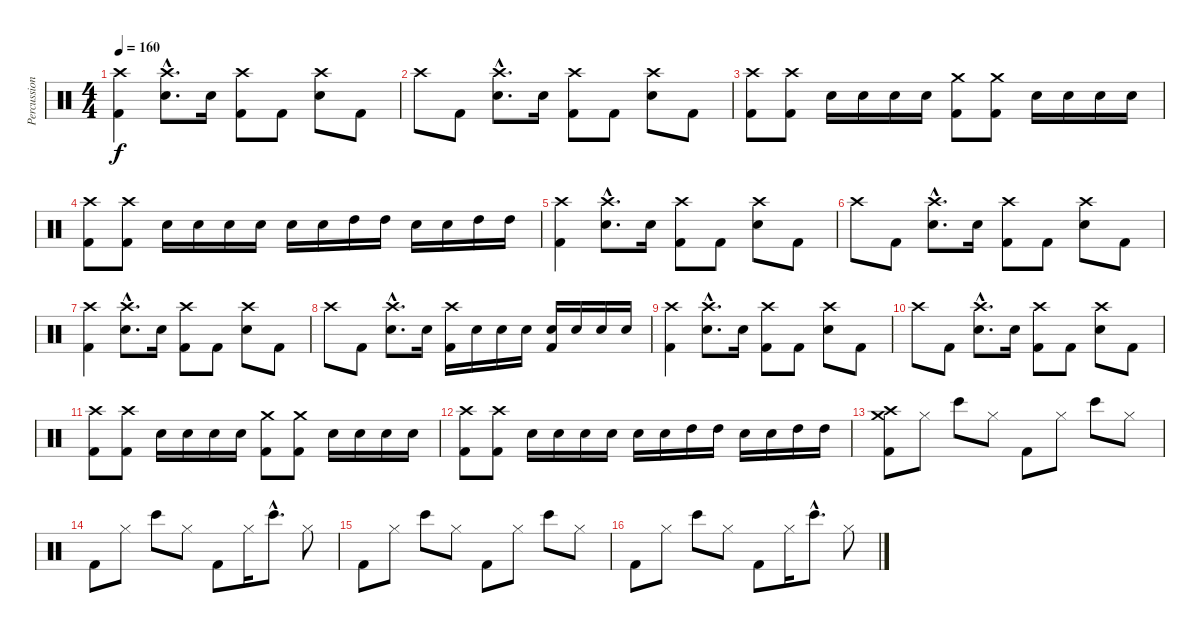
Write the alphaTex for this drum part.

\track ("Percussion" "Percussion") {instrument percussion}
\staff {score}
\articulation defaults
\ts (4 4)
\tempo 160
\clef neutral
\ks c
("Crash high (hit)" "Kick (hit) 2").4{dy f} ("Crash high (hit)"{hac} "Electric Snare (hit)"{hac}).8{d} "Electric Snare (hit)".16 ("Crash high (hit)" "Kick (hit) 2").8 "Kick (hit) 2".8 ("Crash high (hit)" "Electric Snare (hit)").8 "Kick (hit) 2".8 |
"Crash high (hit)".8 "Kick (hit) 2".8 ("Crash high (hit)"{hac} "Electric Snare (hit)"{hac}).8{d} "Electric Snare (hit)".16 ("Crash high (hit)" "Kick (hit) 2").8 "Kick (hit) 2".8 ("Crash high (hit)" "Electric Snare (hit)").8 "Kick (hit) 2".8 |
("Crash high (hit)" "Kick (hit) 2").8 ("Crash high (hit)" "Kick (hit) 2").8 "Electric Snare (hit)".16 "Electric Snare (hit)".16 "Electric Snare (hit)".16 "Electric Snare (hit)".16 ("Crash medium (hit)" "Kick (hit) 2").8 ("Crash medium (hit)" "Kick (hit) 2").8 "Electric Snare (hit)".16 "Electric Snare (hit)".16 "Electric Snare (hit)".16 "Electric Snare (hit)".16 |
("Crash high (hit)" "Kick (hit) 2").8 ("Crash high (hit)" "Kick (hit) 2").8 "Electric Snare (hit)".16 "Electric Snare (hit)".16 "Electric Snare (hit)".16 "Electric Snare (hit)".16 "Electric Snare (hit)".16 "Electric Snare (hit)".16 "High Tom (hit)".16 "High Tom (hit)".16 "Electric Snare (hit)".16 "Electric Snare (hit)".16 "High Tom (hit)".16 "High Tom (hit)".16 |
("Crash high (hit)" "Kick (hit) 2").4 ("Crash high (hit)"{hac} "Electric Snare (hit)"{hac}).8{d} "Electric Snare (hit)".16 ("Crash high (hit)" "Kick (hit) 2").8 "Kick (hit) 2".8 ("Crash high (hit)" "Electric Snare (hit)").8 "Kick (hit) 2".8 |
"Crash high (hit)".8 "Kick (hit) 2".8 ("Crash high (hit)"{hac} "Electric Snare (hit)"{hac}).8{d} "Electric Snare (hit)".16 ("Crash high (hit)" "Kick (hit) 2").8 "Kick (hit) 2".8 ("Crash high (hit)" "Electric Snare (hit)").8 "Kick (hit) 2".8 |
("Crash high (hit)" "Kick (hit) 2").4 ("Crash high (hit)"{hac} "Electric Snare (hit)"{hac}).8{d} "Electric Snare (hit)".16 ("Crash high (hit)" "Kick (hit) 2").8 "Kick (hit) 2".8 ("Crash high (hit)" "Electric Snare (hit)").8 "Kick (hit) 2".8 |
"Crash high (hit)".8 "Kick (hit) 2".8 ("Crash high (hit)"{hac} "Electric Snare (hit)"{hac}).8{d} "Electric Snare (hit)".16 ("Crash high (hit)" "Kick (hit) 2").16 "Electric Snare (hit)".16 "Electric Snare (hit)".16 "Electric Snare (hit)".16 ("Electric Snare (hit)" "Kick (hit) 2").16 "Electric Snare (hit)".16 "Electric Snare (hit)".16 "Electric Snare (hit)".16 |
("Crash high (hit)" "Kick (hit) 2").4 ("Crash high (hit)"{hac} "Electric Snare (hit)"{hac}).8{d} "Electric Snare (hit)".16 ("Crash high (hit)" "Kick (hit) 2").8 "Kick (hit) 2".8 ("Crash high (hit)" "Electric Snare (hit)").8 "Kick (hit) 2".8 |
"Crash high (hit)".8 "Kick (hit) 2".8 ("Crash high (hit)"{hac} "Electric Snare (hit)"{hac}).8{d} "Electric Snare (hit)".16 ("Crash high (hit)" "Kick (hit) 2").8 "Kick (hit) 2".8 ("Crash high (hit)" "Electric Snare (hit)").8 "Kick (hit) 2".8 |
("Crash high (hit)" "Kick (hit) 2").8 ("Crash high (hit)" "Kick (hit) 2").8 "Electric Snare (hit)".16 "Electric Snare (hit)".16 "Electric Snare (hit)".16 "Electric Snare (hit)".16 ("Crash medium (hit)" "Kick (hit) 2").8 ("Crash medium (hit)" "Kick (hit) 2").8 "Electric Snare (hit)".16 "Electric Snare (hit)".16 "Electric Snare (hit)".16 "Electric Snare (hit)".16 |
("Crash high (hit)" "Kick (hit) 2").8 ("Crash high (hit)" "Kick (hit) 2").8 "Electric Snare (hit)".16 "Electric Snare (hit)".16 "Electric Snare (hit)".16 "Electric Snare (hit)".16 "Electric Snare (hit)".16 "Electric Snare (hit)".16 "High Tom (hit)".16 "High Tom (hit)".16 "Electric Snare (hit)".16 "Electric Snare (hit)".16 "High Tom (hit)".16 "High Tom (hit)".16 |
("Crash high (hit)" "Crash medium (hit)" "Kick (hit) 2").8 "Hi-Hat (closed)".8 "Bongo High (hit)".8 "Hi-Hat (closed)".8 "Kick (hit) 2".8 "Hi-Hat (closed)".8 "Bongo High (hit)".8 "Hi-Hat (closed)".8 |
"Kick (hit) 2".8 "Hi-Hat (closed)".8 "Bongo High (hit)".8 "Hi-Hat (closed)".8 "Kick (hit) 2".8 "Hi-Hat (closed)".16 "Bongo High (hit)"{hac}.8{d} "Hi-Hat (closed)".8 |
"Kick (hit) 2".8 "Hi-Hat (closed)".8 "Bongo High (hit)".8 "Hi-Hat (closed)".8 "Kick (hit) 2".8 "Hi-Hat (closed)".8 "Bongo High (hit)".8 "Hi-Hat (closed)".8 |
"Kick (hit) 2".8 "Hi-Hat (closed)".8 "Bongo High (hit)".8 "Hi-Hat (closed)".8 "Kick (hit) 2".8 "Hi-Hat (closed)".16 "Bongo High (hit)"{hac}.8{d} "Hi-Hat (closed)".8
